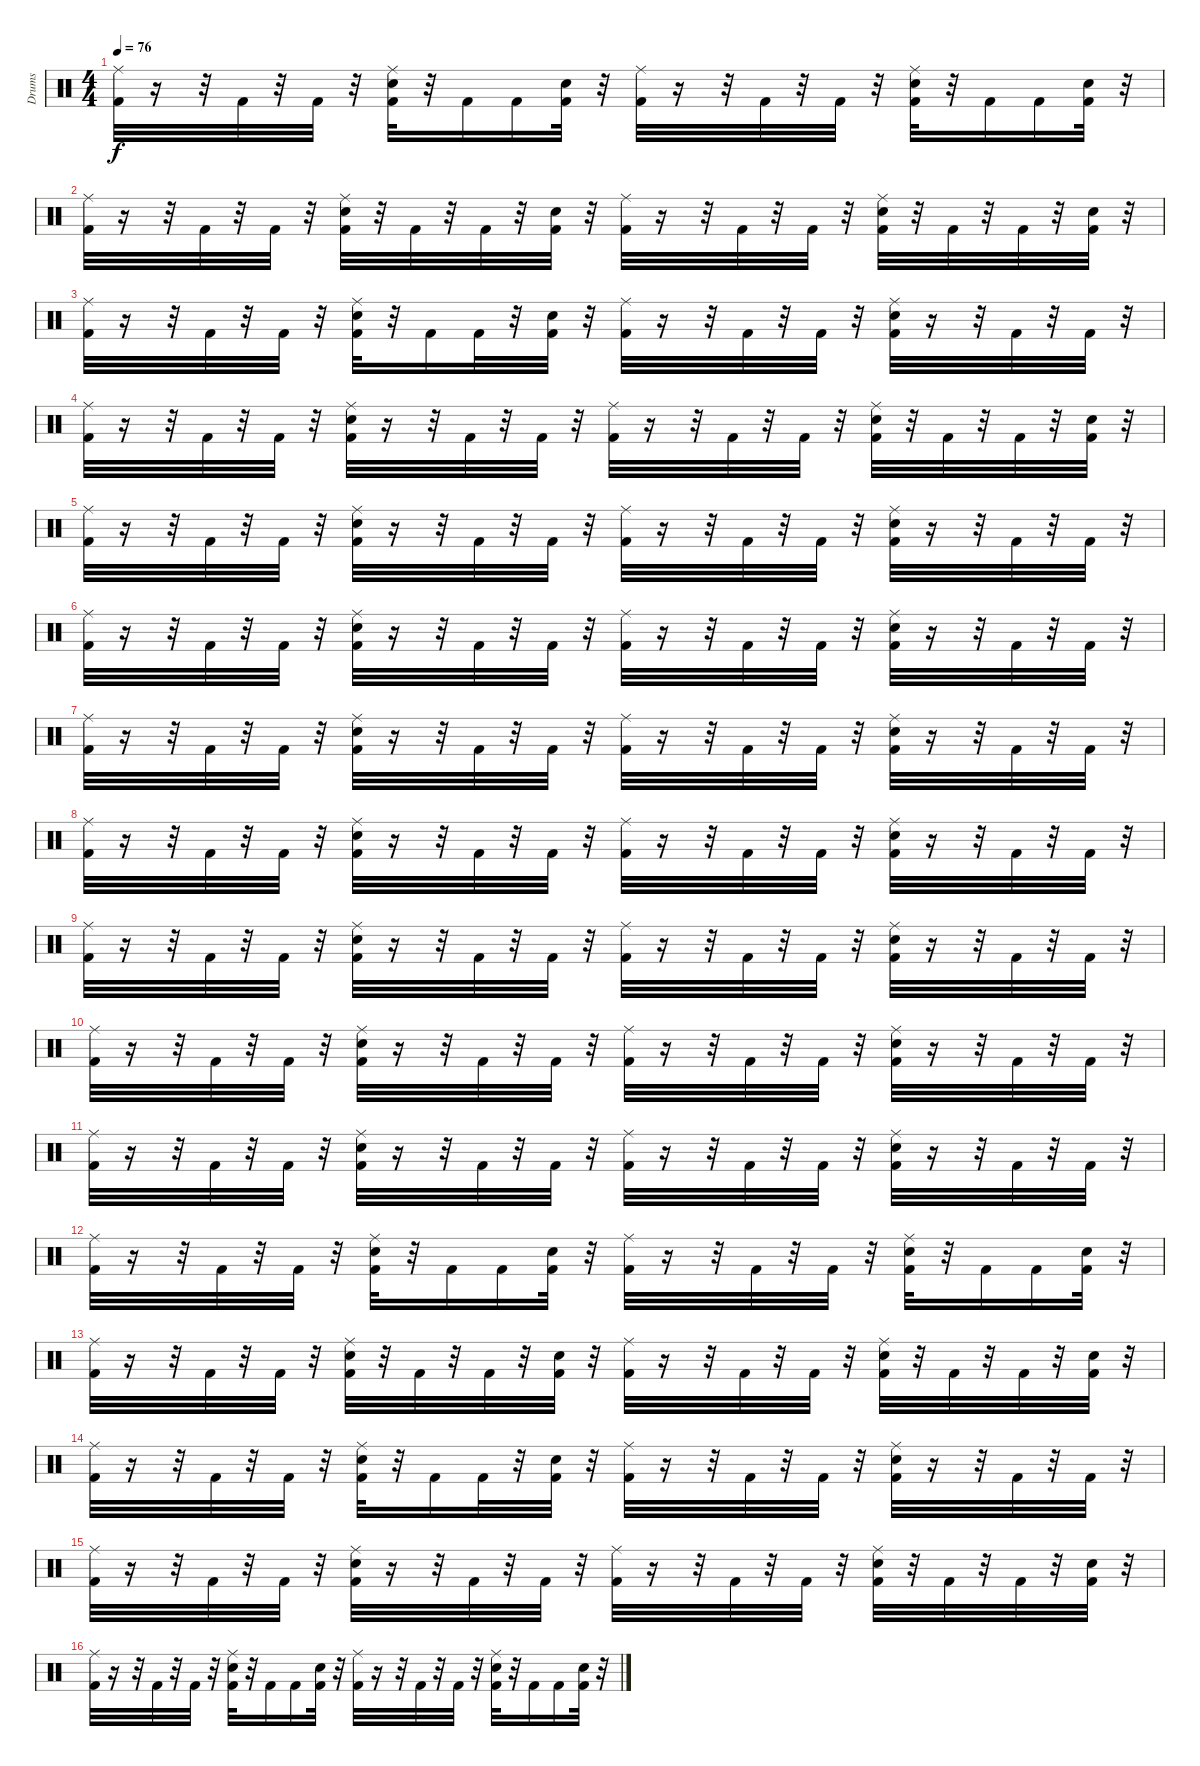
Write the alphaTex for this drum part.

\track ("Drums" "Drums") {instrument percussion}
\staff {score}
\articulation defaults
\ts (4 4)
\tempo 76
\clef neutral
\ks c
("Ride (middle)" "Kick (hit) 2").32{dy f} r.16 r.32 "Kick (hit) 2".32 r.32 "Kick (hit) 2".32 r.32 ("Ride (middle)" "Snare (hit) 2" "Kick (hit) 2").32 r.32 "Kick (hit) 2".16 "Kick (hit) 2".16 ("Snare (hit) 2" "Kick (hit) 2").32 r.32 ("Ride (middle)" "Kick (hit) 2").32 r.16 r.32 "Kick (hit) 2".32 r.32 "Kick (hit) 2".32 r.32 ("Ride (middle)" "Snare (hit) 2" "Kick (hit) 2").32 r.32 "Kick (hit) 2".16 "Kick (hit) 2".16 ("Snare (hit) 2" "Kick (hit) 2").32 r.32 |
("Ride (middle)" "Kick (hit) 2").32 r.16 r.32 "Kick (hit) 2".32 r.32 "Kick (hit) 2".32 r.32 ("Ride (middle)" "Snare (hit) 2" "Kick (hit) 2").32 r.32 "Kick (hit) 2".32 r.32 "Kick (hit) 2".32 r.32 ("Electric Snare (hit)" "Kick (hit) 2").32 r.32 ("Ride (middle)" "Kick (hit) 2").32 r.16 r.32 "Kick (hit) 2".32 r.32 "Kick (hit) 2".32 r.32 ("Ride (middle)" "Snare (hit) 2" "Kick (hit) 2").32 r.32 "Kick (hit) 2".32 r.32 "Kick (hit) 2".32 r.32 ("Electric Snare (hit)" "Kick (hit) 2").32 r.32 |
("Ride (middle)" "Kick (hit) 2").32 r.16 r.32 "Kick (hit) 2".32 r.32 "Kick (hit) 2".32 r.32 ("Ride (middle)" "Snare (hit) 2" "Kick (hit) 2").32 r.32 "Kick (hit) 2".16 "Kick (hit) 2".32 r.32 ("Snare (hit) 2" "Kick (hit) 2").32 r.32 ("Ride (middle)" "Kick (hit) 2").32 r.16 r.32 "Kick (hit) 2".32 r.32 "Kick (hit) 2".32 r.32 ("Ride (middle)" "Snare (hit) 2" "Kick (hit) 2").32 r.16 r.32 "Kick (hit) 2".32 r.32 "Kick (hit) 2".32 r.32 |
("Ride (middle)" "Kick (hit) 2").32 r.16 r.32 "Kick (hit) 2".32 r.32 "Kick (hit) 2".32 r.32 ("Ride (middle)" "Snare (hit) 2" "Kick (hit) 2").32 r.16 r.32 "Kick (hit) 2".32 r.32 "Kick (hit) 2".32 r.32 ("Ride (middle)" "Kick (hit) 2").32 r.16 r.32 "Kick (hit) 2".32 r.32 "Kick (hit) 2".32 r.32 ("Ride (middle)" "Snare (hit) 2" "Kick (hit) 2").32 r.32 "Kick (hit) 2".32 r.32 "Kick (hit) 2".32 r.32 ("Electric Snare (hit)" "Kick (hit) 2").32 r.32 |
("Ride (middle)" "Kick (hit) 2").32 r.16 r.32 "Kick (hit) 2".32 r.32 "Kick (hit) 2".32 r.32 ("Ride (middle)" "Snare (hit) 2" "Kick (hit) 2").32 r.16 r.32 "Kick (hit) 2".32 r.32 "Kick (hit) 2".32 r.32 ("Ride (middle)" "Kick (hit) 2").32 r.16 r.32 "Kick (hit) 2".32 r.32 "Kick (hit) 2".32 r.32 ("Ride (middle)" "Snare (hit) 2" "Kick (hit) 2").32 r.16 r.32 "Kick (hit) 2".32 r.32 "Kick (hit) 2".32 r.32 |
("Ride (middle)" "Kick (hit) 2").32 r.16 r.32 "Kick (hit) 2".32 r.32 "Kick (hit) 2".32 r.32 ("Ride (middle)" "Snare (hit) 2" "Kick (hit) 2").32 r.16 r.32 "Kick (hit) 2".32 r.32 "Kick (hit) 2".32 r.32 ("Ride (middle)" "Kick (hit) 2").32 r.16 r.32 "Kick (hit) 2".32 r.32 "Kick (hit) 2".32 r.32 ("Ride (middle)" "Snare (hit) 2" "Kick (hit) 2").32 r.16 r.32 "Kick (hit) 2".32 r.32 "Kick (hit) 2".32 r.32 |
("Ride (middle)" "Kick (hit) 2").32 r.16 r.32 "Kick (hit) 2".32 r.32 "Kick (hit) 2".32 r.32 ("Ride (middle)" "Snare (hit) 2" "Kick (hit) 2").32 r.16 r.32 "Kick (hit) 2".32 r.32 "Kick (hit) 2".32 r.32 ("Ride (middle)" "Kick (hit) 2").32 r.16 r.32 "Kick (hit) 2".32 r.32 "Kick (hit) 2".32 r.32 ("Ride (middle)" "Snare (hit) 2" "Kick (hit) 2").32 r.16 r.32 "Kick (hit) 2".32 r.32 "Kick (hit) 2".32 r.32 |
("Ride (middle)" "Kick (hit) 2").32 r.16 r.32 "Kick (hit) 2".32 r.32 "Kick (hit) 2".32 r.32 ("Ride (middle)" "Snare (hit) 2" "Kick (hit) 2").32 r.16 r.32 "Kick (hit) 2".32 r.32 "Kick (hit) 2".32 r.32 ("Ride (middle)" "Kick (hit) 2").32 r.16 r.32 "Kick (hit) 2".32 r.32 "Kick (hit) 2".32 r.32 ("Ride (middle)" "Snare (hit) 2" "Kick (hit) 2").32 r.16 r.32 "Kick (hit) 2".32 r.32 "Kick (hit) 2".32 r.32 |
("Ride (middle)" "Kick (hit) 2").32 r.16 r.32 "Kick (hit) 2".32 r.32 "Kick (hit) 2".32 r.32 ("Ride (middle)" "Snare (hit) 2" "Kick (hit) 2").32 r.16 r.32 "Kick (hit) 2".32 r.32 "Kick (hit) 2".32 r.32 ("Ride (middle)" "Kick (hit) 2").32 r.16 r.32 "Kick (hit) 2".32 r.32 "Kick (hit) 2".32 r.32 ("Ride (middle)" "Snare (hit) 2" "Kick (hit) 2").32 r.16 r.32 "Kick (hit) 2".32 r.32 "Kick (hit) 2".32 r.32 |
("Ride (middle)" "Kick (hit) 2").32 r.16 r.32 "Kick (hit) 2".32 r.32 "Kick (hit) 2".32 r.32 ("Ride (middle)" "Snare (hit) 2" "Kick (hit) 2").32 r.16 r.32 "Kick (hit) 2".32 r.32 "Kick (hit) 2".32 r.32 ("Ride (middle)" "Kick (hit) 2").32 r.16 r.32 "Kick (hit) 2".32 r.32 "Kick (hit) 2".32 r.32 ("Ride (middle)" "Snare (hit) 2" "Kick (hit) 2").32 r.16 r.32 "Kick (hit) 2".32 r.32 "Kick (hit) 2".32 r.32 |
("Ride (middle)" "Kick (hit) 2").32 r.16 r.32 "Kick (hit) 2".32 r.32 "Kick (hit) 2".32 r.32 ("Ride (middle)" "Snare (hit) 2" "Kick (hit) 2").32 r.16 r.32 "Kick (hit) 2".32 r.32 "Kick (hit) 2".32 r.32 ("Ride (middle)" "Kick (hit) 2").32 r.16 r.32 "Kick (hit) 2".32 r.32 "Kick (hit) 2".32 r.32 ("Ride (middle)" "Snare (hit) 2" "Kick (hit) 2").32 r.16 r.32 "Kick (hit) 2".32 r.32 "Kick (hit) 2".32 r.32 |
("Ride (middle)" "Kick (hit) 2").32 r.16 r.32 "Kick (hit) 2".32 r.32 "Kick (hit) 2".32 r.32 ("Ride (middle)" "Snare (hit) 2" "Kick (hit) 2").32 r.32 "Kick (hit) 2".16 "Kick (hit) 2".16 ("Snare (hit) 2" "Kick (hit) 2").32 r.32 ("Ride (middle)" "Kick (hit) 2").32 r.16 r.32 "Kick (hit) 2".32 r.32 "Kick (hit) 2".32 r.32 ("Ride (middle)" "Snare (hit) 2" "Kick (hit) 2").32 r.32 "Kick (hit) 2".16 "Kick (hit) 2".16 ("Snare (hit) 2" "Kick (hit) 2").32 r.32 |
("Ride (middle)" "Kick (hit) 2").32 r.16 r.32 "Kick (hit) 2".32 r.32 "Kick (hit) 2".32 r.32 ("Ride (middle)" "Snare (hit) 2" "Kick (hit) 2").32 r.32 "Kick (hit) 2".32 r.32 "Kick (hit) 2".32 r.32 ("Snare (hit) 2" "Kick (hit) 2").32 r.32 ("Ride (middle)" "Kick (hit) 2").32 r.16 r.32 "Kick (hit) 2".32 r.32 "Kick (hit) 2".32 r.32 ("Ride (middle)" "Snare (hit) 2" "Kick (hit) 2").32 r.32 "Kick (hit) 2".32 r.32 "Kick (hit) 2".32 r.32 ("Snare (hit) 2" "Kick (hit) 2").32 r.32 |
("Ride (middle)" "Kick (hit) 2").32 r.16 r.32 "Kick (hit) 2".32 r.32 "Kick (hit) 2".32 r.32 ("Ride (middle)" "Snare (hit) 2" "Kick (hit) 2").32 r.32 "Kick (hit) 2".16 "Kick (hit) 2".32 r.32 ("Snare (hit) 2" "Kick (hit) 2").32 r.32 ("Ride (middle)" "Kick (hit) 2").32 r.16 r.32 "Kick (hit) 2".32 r.32 "Kick (hit) 2".32 r.32 ("Ride (middle)" "Snare (hit) 2" "Kick (hit) 2").32 r.16 r.32 "Kick (hit) 2".32 r.32 "Kick (hit) 2".32 r.32 |
("Ride (middle)" "Kick (hit) 2").32 r.16 r.32 "Kick (hit) 2".32 r.32 "Kick (hit) 2".32 r.32 ("Ride (middle)" "Snare (hit) 2" "Kick (hit) 2").32 r.16 r.32 "Kick (hit) 2".32 r.32 "Kick (hit) 2".32 r.32 ("Ride (middle)" "Kick (hit) 2").32 r.16 r.32 "Kick (hit) 2".32 r.32 "Kick (hit) 2".32 r.32 ("Ride (middle)" "Snare (hit) 2" "Kick (hit) 2").32 r.32 "Kick (hit) 2".32 r.32 "Kick (hit) 2".32 r.32 ("Snare (hit) 2" "Kick (hit) 2").32 r.32 |
("Ride (middle)" "Kick (hit) 2").32 r.16 r.32 "Kick (hit) 2".32 r.32 "Kick (hit) 2".32 r.32 ("Ride (middle)" "Snare (hit) 2" "Kick (hit) 2").32 r.32 "Kick (hit) 2".16 "Kick (hit) 2".16 ("Snare (hit) 2" "Kick (hit) 2").32 r.32 ("Ride (middle)" "Kick (hit) 2").32 r.16 r.32 "Kick (hit) 2".32 r.32 "Kick (hit) 2".32 r.32 ("Ride (middle)" "Snare (hit) 2" "Kick (hit) 2").32 r.32 "Kick (hit) 2".16 "Kick (hit) 2".16 ("Snare (hit) 2" "Kick (hit) 2").32 r.32
